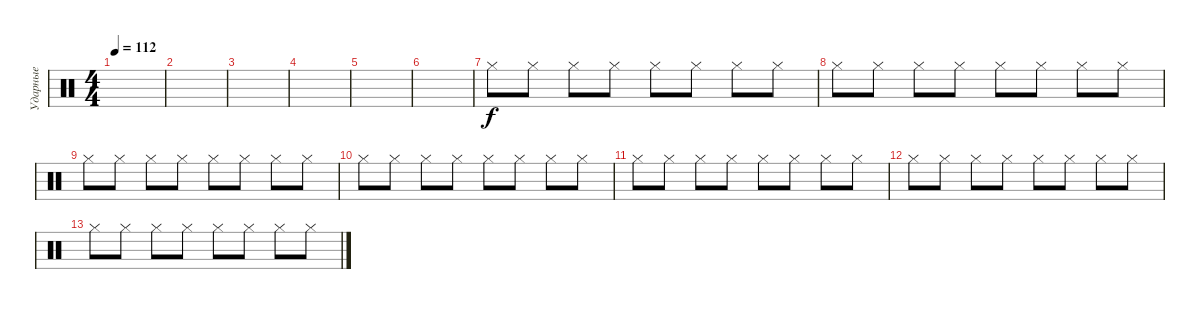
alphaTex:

\track ("Ударные" "Ударные") {instrument percussion}
\staff {score}
\articulation defaults
\ts (4 4)
\tempo 112
\clef neutral
\ks c
|
|
|
|
|
|
"Hi-Hat (closed)".8 "Hi-Hat (closed)".8 "Hi-Hat (closed)".8 "Hi-Hat (closed)".8 "Hi-Hat (closed)".8 "Hi-Hat (closed)".8 "Hi-Hat (closed)".8 "Hi-Hat (closed)".8 |
"Hi-Hat (closed)".8 "Hi-Hat (closed)".8 "Hi-Hat (closed)".8 "Hi-Hat (closed)".8 "Hi-Hat (closed)".8 "Hi-Hat (closed)".8 "Hi-Hat (closed)".8 "Hi-Hat (closed)".8 |
"Hi-Hat (closed)".8 "Hi-Hat (closed)".8 "Hi-Hat (closed)".8 "Hi-Hat (closed)".8 "Hi-Hat (closed)".8 "Hi-Hat (closed)".8 "Hi-Hat (closed)".8 "Hi-Hat (closed)".8 |
"Hi-Hat (closed)".8 "Hi-Hat (closed)".8 "Hi-Hat (closed)".8 "Hi-Hat (closed)".8 "Hi-Hat (closed)".8 "Hi-Hat (closed)".8 "Hi-Hat (closed)".8 "Hi-Hat (closed)".8 |
"Hi-Hat (closed)".8 "Hi-Hat (closed)".8 "Hi-Hat (closed)".8 "Hi-Hat (closed)".8 "Hi-Hat (closed)".8 "Hi-Hat (closed)".8 "Hi-Hat (closed)".8 "Hi-Hat (closed)".8 |
"Hi-Hat (closed)".8 "Hi-Hat (closed)".8 "Hi-Hat (closed)".8 "Hi-Hat (closed)".8 "Hi-Hat (closed)".8 "Hi-Hat (closed)".8 "Hi-Hat (closed)".8 "Hi-Hat (closed)".8 |
"Hi-Hat (closed)".8 "Hi-Hat (closed)".8 "Hi-Hat (closed)".8 "Hi-Hat (closed)".8 "Hi-Hat (closed)".8 "Hi-Hat (closed)".8 "Hi-Hat (closed)".8 "Hi-Hat (closed)".8
